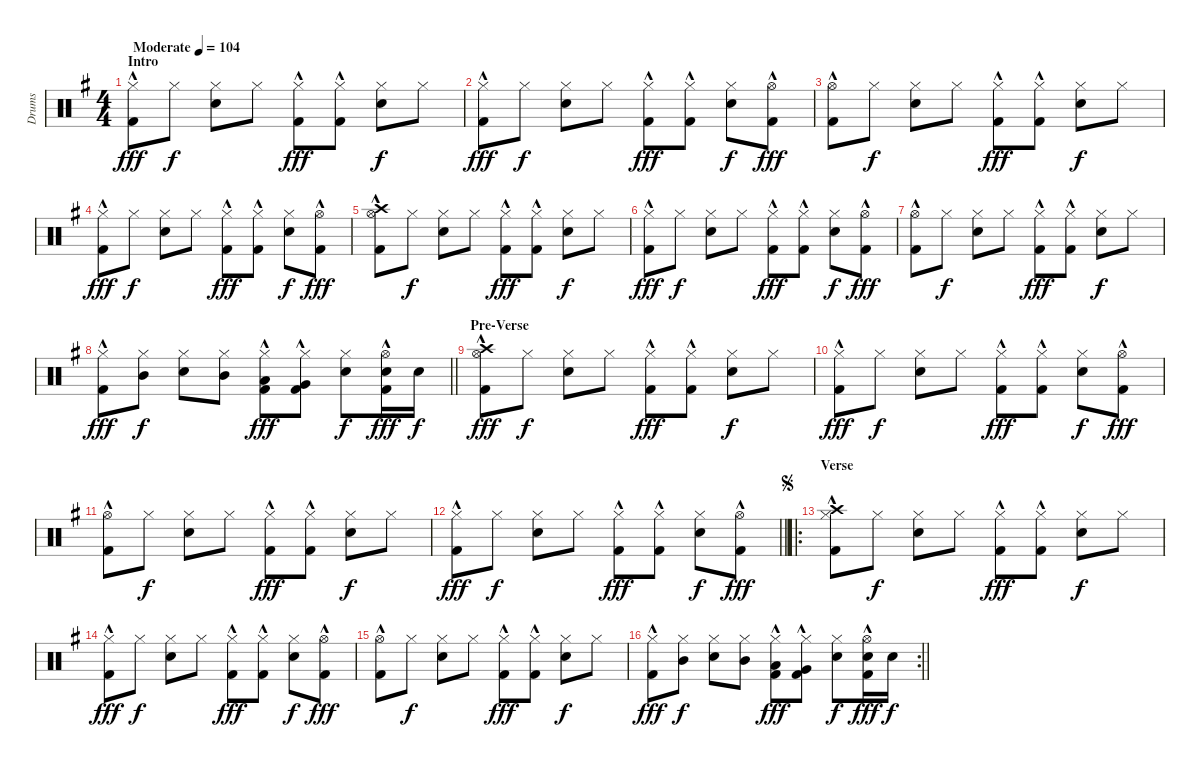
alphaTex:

\track ("Drums" "Drums") {instrument percussion}
\staff {score}
\articulation defaults
\ts (4 4)
\section ("" "Intro")
\tempo (104 "Moderate")
\clef neutral
\ks g
("Hi-Hat (closed)" "Kick (hit) 2"{hac}).8{dy fff} "Hi-Hat (closed)".8{dy f} ("Snare (hit) 2" "Hi-Hat (closed)").8 "Hi-Hat (closed)".8 ("Hi-Hat (closed)" "Kick (hit) 2"{hac}).8{dy fff} ("Hi-Hat (closed)" "Kick (hit) 2"{hac}).8 ("Snare (hit) 2" "Hi-Hat (closed)").8{dy f} "Hi-Hat (closed)".8 |
("Hi-Hat (closed)" "Kick (hit) 2"{hac}).8{dy fff} "Hi-Hat (closed)".8{dy f} ("Snare (hit) 2" "Hi-Hat (closed)").8 "Hi-Hat (closed)".8 ("Hi-Hat (closed)" "Kick (hit) 2"{hac}).8{dy fff} ("Hi-Hat (closed)" "Kick (hit) 2"{hac}).8 ("Snare (hit) 2" "Hi-Hat (closed)").8{dy f} ("Hi-Hat (open)" "Kick (hit) 2"{hac}).8{dy fff} |
("Hi-Hat (open)" "Kick (hit) 2"{hac}).8 "Hi-Hat (closed)".8{dy f} ("Snare (hit) 2" "Hi-Hat (closed)").8 "Hi-Hat (closed)".8 ("Hi-Hat (closed)" "Kick (hit) 2"{hac}).8{dy fff} ("Hi-Hat (closed)" "Kick (hit) 2"{hac}).8 ("Snare (hit) 2" "Hi-Hat (closed)").8{dy f} "Hi-Hat (closed)".8 |
("Hi-Hat (closed)" "Kick (hit) 2"{hac}).8{dy fff} "Hi-Hat (closed)".8{dy f} ("Snare (hit) 2" "Hi-Hat (closed)").8 "Hi-Hat (closed)".8 ("Hi-Hat (closed)" "Kick (hit) 2"{hac}).8{dy fff} ("Hi-Hat (closed)" "Kick (hit) 2"{hac}).8 ("Snare (hit) 2" "Hi-Hat (closed)").8{dy f} ("Hi-Hat (open)" "Kick (hit) 2"{hac}).8{dy fff} |
("Hi-Hat (open)" "Crash high (hit)" "Kick (hit) 2"{hac}).8 "Hi-Hat (closed)".8{dy f} ("Snare (hit) 2" "Hi-Hat (closed)").8 "Hi-Hat (closed)".8 ("Hi-Hat (closed)" "Kick (hit) 2"{hac}).8{dy fff} ("Hi-Hat (closed)" "Kick (hit) 2"{hac}).8 ("Snare (hit) 2" "Hi-Hat (closed)").8{dy f} "Hi-Hat (closed)".8 |
("Hi-Hat (closed)" "Kick (hit) 2"{hac}).8{dy fff} "Hi-Hat (closed)".8{dy f} ("Snare (hit) 2" "Hi-Hat (closed)").8 "Hi-Hat (closed)".8 ("Hi-Hat (closed)" "Kick (hit) 2"{hac}).8{dy fff} ("Hi-Hat (closed)" "Kick (hit) 2"{hac}).8 ("Snare (hit) 2" "Hi-Hat (closed)").8{dy f} ("Hi-Hat (open)" "Kick (hit) 2"{hac}).8{dy fff} |
("Hi-Hat (open)" "Kick (hit) 2"{hac}).8 "Hi-Hat (closed)".8{dy f} ("Snare (hit) 2" "Hi-Hat (closed)").8 "Hi-Hat (closed)".8 ("Hi-Hat (closed)" "Kick (hit) 2"{hac}).8{dy fff} ("Hi-Hat (closed)" "Kick (hit) 2"{hac}).8 ("Snare (hit) 2" "Hi-Hat (closed)").8{dy f} "Hi-Hat (closed)".8 |
\barLineRight lightlight
("Hi-Hat (closed)" "Kick (hit) 2"{hac}).8{dy fff} ("Hi-Hat (closed)" "Mid Tom (hit)").8{dy f} ("Snare (hit) 2" "Hi-Hat (closed)").8 ("Hi-Hat (closed)" "Mid Tom (hit)").8 ("Hi-Hat (closed)" "Low Tom (hit)" "Kick (hit) 2"{hac}).8{dy fff} ("Hi-Hat (closed)" "Very Low Tom (hit)" "Kick (hit) 2"{hac}).8 ("Snare (hit) 2" "Hi-Hat (closed)").8{dy f} ("Snare (hit) 2" "Hi-Hat (open)" "Kick (hit) 2"{hac}).16{dy fff} "Snare (hit) 2".16{dy f} |
\section ("" "Pre-Verse")
("Hi-Hat (open)" "Crash high (hit)" "Kick (hit) 2"{hac}).8{dy fff} "Hi-Hat (closed)".8{dy f} ("Snare (hit) 2" "Hi-Hat (closed)").8 "Hi-Hat (closed)".8 ("Hi-Hat (closed)" "Kick (hit) 2"{hac}).8{dy fff} ("Hi-Hat (closed)" "Kick (hit) 2"{hac}).8 ("Snare (hit) 2" "Hi-Hat (closed)").8{dy f} "Hi-Hat (closed)".8 |
("Hi-Hat (closed)" "Kick (hit) 2"{hac}).8{dy fff} "Hi-Hat (closed)".8{dy f} ("Snare (hit) 2" "Hi-Hat (closed)").8 "Hi-Hat (closed)".8 ("Hi-Hat (closed)" "Kick (hit) 2"{hac}).8{dy fff} ("Hi-Hat (closed)" "Kick (hit) 2"{hac}).8 ("Snare (hit) 2" "Hi-Hat (closed)").8{dy f} ("Hi-Hat (open)" "Kick (hit) 2"{hac}).8{dy fff} |
("Hi-Hat (open)" "Kick (hit) 2"{hac}).8 "Hi-Hat (closed)".8{dy f} ("Snare (hit) 2" "Hi-Hat (closed)").8 "Hi-Hat (closed)".8 ("Hi-Hat (closed)" "Kick (hit) 2"{hac}).8{dy fff} ("Hi-Hat (closed)" "Kick (hit) 2"{hac}).8 ("Snare (hit) 2" "Hi-Hat (closed)").8{dy f} "Hi-Hat (closed)".8 |
\barLineRight lightlight
("Hi-Hat (closed)" "Kick (hit) 2"{hac}).8{dy fff} "Hi-Hat (closed)".8{dy f} ("Snare (hit) 2" "Hi-Hat (closed)").8 "Hi-Hat (closed)".8 ("Hi-Hat (closed)" "Kick (hit) 2"{hac}).8{dy fff} ("Hi-Hat (closed)" "Kick (hit) 2"{hac}).8 ("Snare (hit) 2" "Hi-Hat (closed)").8{dy f} ("Hi-Hat (open)" "Kick (hit) 2"{hac}).8{dy fff} |
\ro
\section ("" "Verse")
\jump segno
("Hi-Hat (closed)" "Crash high (hit)" "Kick (hit) 2"{hac}).8 "Hi-Hat (closed)".8{dy f} ("Snare (hit) 2" "Hi-Hat (closed)").8 "Hi-Hat (closed)".8 ("Hi-Hat (closed)" "Kick (hit) 2"{hac}).8{dy fff} ("Hi-Hat (closed)" "Kick (hit) 2"{hac}).8 ("Snare (hit) 2" "Hi-Hat (closed)").8{dy f} "Hi-Hat (closed)".8 |
("Hi-Hat (closed)" "Kick (hit) 2"{hac}).8{dy fff} "Hi-Hat (closed)".8{dy f} ("Snare (hit) 2" "Hi-Hat (closed)").8 "Hi-Hat (closed)".8 ("Hi-Hat (closed)" "Kick (hit) 2"{hac}).8{dy fff} ("Hi-Hat (closed)" "Kick (hit) 2"{hac}).8 ("Snare (hit) 2" "Hi-Hat (closed)").8{dy f} ("Hi-Hat (open)" "Kick (hit) 2"{hac}).8{dy fff} |
("Hi-Hat (open)" "Kick (hit) 2"{hac}).8 "Hi-Hat (closed)".8{dy f} ("Snare (hit) 2" "Hi-Hat (closed)").8 "Hi-Hat (closed)".8 ("Hi-Hat (closed)" "Kick (hit) 2"{hac}).8{dy fff} ("Hi-Hat (closed)" "Kick (hit) 2"{hac}).8 ("Snare (hit) 2" "Hi-Hat (closed)").8{dy f} "Hi-Hat (closed)".8 |
\rc 2
\barLineRight lightlight
("Hi-Hat (closed)" "Kick (hit) 2"{hac}).8{dy fff} ("Hi-Hat (closed)" "Mid Tom (hit)").8{dy f} ("Snare (hit) 2" "Hi-Hat (closed)").8 ("Hi-Hat (closed)" "Mid Tom (hit)").8 ("Hi-Hat (closed)" "Low Tom (hit)" "Kick (hit) 2"{hac}).8{dy fff} ("Hi-Hat (closed)" "Very Low Tom (hit)" "Kick (hit) 2"{hac}).8 ("Snare (hit) 2" "Hi-Hat (closed)").8{dy f} ("Snare (hit) 2" "Hi-Hat (open)" "Kick (hit) 2"{hac}).16{dy fff} "Snare (hit) 2".16{dy f}
